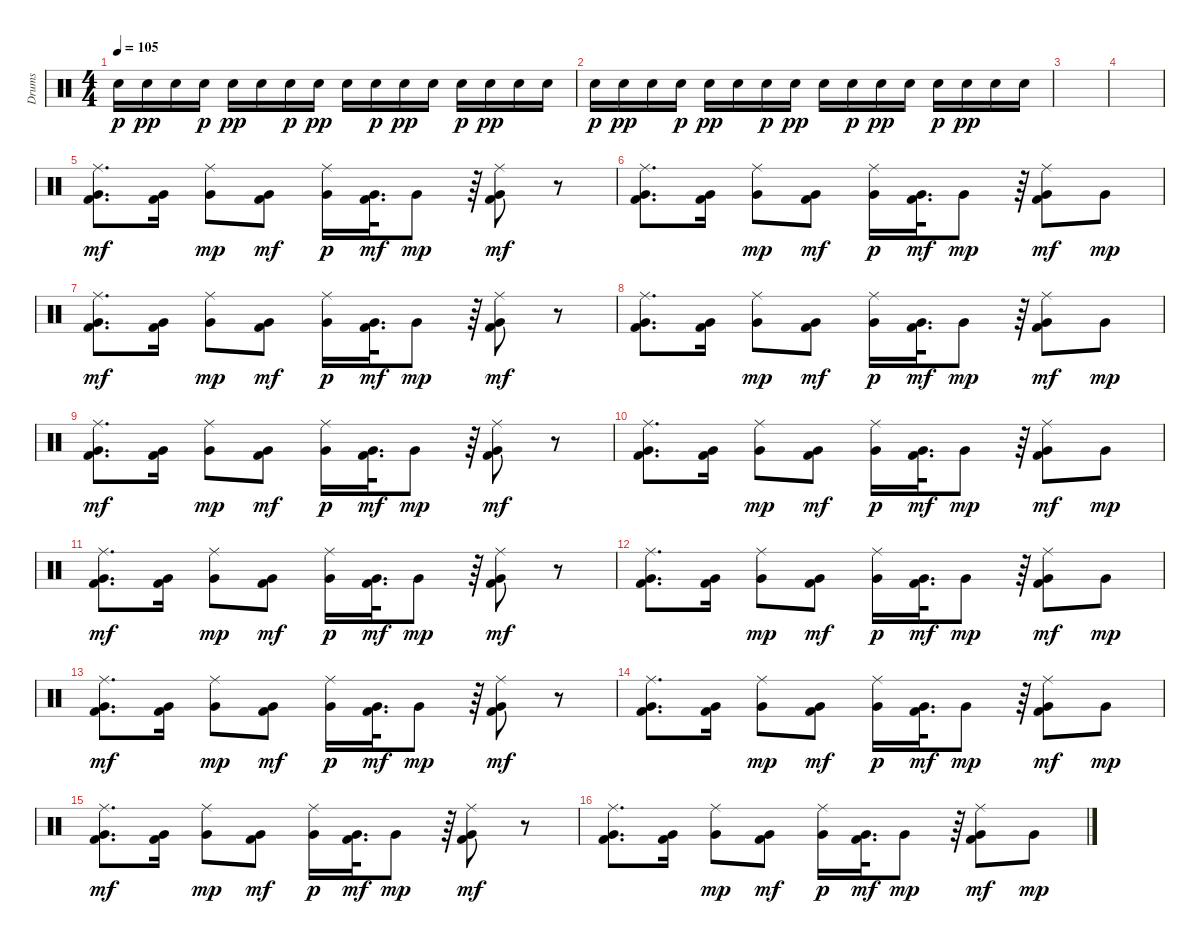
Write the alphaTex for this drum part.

\track ("Drums" "Drums") {instrument percussion}
\staff {score}
\articulation defaults
\ts (4 4)
\tempo 105
\clef neutral
\ks c "Electric Snare (hit)".16{dy p} "Electric Snare (hit)".16{dy pp} "Electric Snare (hit)".16 "Electric Snare (hit)".16{dy p} "Electric Snare (hit)".16{dy pp} "Electric Snare (hit)".16 "Electric Snare (hit)".16{dy p} "Electric Snare (hit)".16{dy pp} "Electric Snare (hit)".16 "Electric Snare (hit)".16{dy p} "Electric Snare (hit)".16{dy pp} "Electric Snare (hit)".16 "Electric Snare (hit)".16{dy p} "Electric Snare (hit)".16{dy pp} "Electric Snare (hit)".16 "Electric Snare (hit)".16
|
"Electric Snare (hit)".16{dy p} "Electric Snare (hit)".16{dy pp} "Electric Snare (hit)".16 "Electric Snare (hit)".16{dy p} "Electric Snare (hit)".16{dy pp} "Electric Snare (hit)".16 "Electric Snare (hit)".16{dy p} "Electric Snare (hit)".16{dy pp} "Electric Snare (hit)".16 "Electric Snare (hit)".16{dy p} "Electric Snare (hit)".16{dy pp} "Electric Snare (hit)".16 "Electric Snare (hit)".16{dy p} "Electric Snare (hit)".16{dy pp} "Electric Snare (hit)".16 "Electric Snare (hit)".16 |
|
|
("Ride (middle)" "Very Low Tom (hit)" "Kick (hit) 2").8{d dy mf} ("Very Low Tom (hit)" "Kick (hit) 2").16 ("Ride (middle)" "Very Low Tom (hit)").8{dy mp} ("Very Low Tom (hit)" "Kick (hit) 2").8{dy mf} ("Ride (middle)" "Very Low Tom (hit)").16{dy p} ("Very Low Tom (hit)" "Kick (hit) 2").32{d dy mf} "Very Low Tom (hit)".8{dy mp} r.64 ("Ride (middle)" "Very Low Tom (hit)" "Kick (hit) 2").8{dy mf} r.8 |
("Ride (middle)" "Very Low Tom (hit)" "Kick (hit) 2").8{d} ("Very Low Tom (hit)" "Kick (hit) 2").16 ("Ride (middle)" "Very Low Tom (hit)").8{dy mp} ("Very Low Tom (hit)" "Kick (hit) 2").8{dy mf} ("Ride (middle)" "Very Low Tom (hit)").16{dy p} ("Very Low Tom (hit)" "Kick (hit) 2").32{d dy mf} "Very Low Tom (hit)".8{dy mp} r.64 ("Ride (middle)" "Very Low Tom (hit)" "Kick (hit) 2").8{dy mf} "Very Low Tom (hit)".8{dy mp} |
("Ride (middle)" "Very Low Tom (hit)" "Kick (hit) 2").8{d dy mf} ("Very Low Tom (hit)" "Kick (hit) 2").16 ("Ride (middle)" "Very Low Tom (hit)").8{dy mp} ("Very Low Tom (hit)" "Kick (hit) 2").8{dy mf} ("Ride (middle)" "Very Low Tom (hit)").16{dy p} ("Very Low Tom (hit)" "Kick (hit) 2").32{d dy mf} "Very Low Tom (hit)".8{dy mp} r.64 ("Ride (middle)" "Very Low Tom (hit)" "Kick (hit) 2").8{dy mf} r.8 |
("Ride (middle)" "Very Low Tom (hit)" "Kick (hit) 2").8{d} ("Very Low Tom (hit)" "Kick (hit) 2").16 ("Ride (middle)" "Very Low Tom (hit)").8{dy mp} ("Very Low Tom (hit)" "Kick (hit) 2").8{dy mf} ("Ride (middle)" "Very Low Tom (hit)").16{dy p} ("Very Low Tom (hit)" "Kick (hit) 2").32{d dy mf} "Very Low Tom (hit)".8{dy mp} r.64 ("Ride (middle)" "Very Low Tom (hit)" "Kick (hit) 2").8{dy mf} "Very Low Tom (hit)".8{dy mp} |
("Ride (middle)" "Very Low Tom (hit)" "Kick (hit) 2").8{d dy mf} ("Very Low Tom (hit)" "Kick (hit) 2").16 ("Ride (middle)" "Very Low Tom (hit)").8{dy mp} ("Very Low Tom (hit)" "Kick (hit) 2").8{dy mf} ("Ride (middle)" "Very Low Tom (hit)").16{dy p} ("Very Low Tom (hit)" "Kick (hit) 2").32{d dy mf} "Very Low Tom (hit)".8{dy mp} r.64 ("Ride (middle)" "Very Low Tom (hit)" "Kick (hit) 2").8{dy mf} r.8 |
("Ride (middle)" "Very Low Tom (hit)" "Kick (hit) 2").8{d} ("Very Low Tom (hit)" "Kick (hit) 2").16 ("Ride (middle)" "Very Low Tom (hit)").8{dy mp} ("Very Low Tom (hit)" "Kick (hit) 2").8{dy mf} ("Ride (middle)" "Very Low Tom (hit)").16{dy p} ("Very Low Tom (hit)" "Kick (hit) 2").32{d dy mf} "Very Low Tom (hit)".8{dy mp} r.64 ("Ride (middle)" "Very Low Tom (hit)" "Kick (hit) 2").8{dy mf} "Very Low Tom (hit)".8{dy mp} |
("Ride (middle)" "Very Low Tom (hit)" "Kick (hit) 2").8{d dy mf} ("Very Low Tom (hit)" "Kick (hit) 2").16 ("Ride (middle)" "Very Low Tom (hit)").8{dy mp} ("Very Low Tom (hit)" "Kick (hit) 2").8{dy mf} ("Ride (middle)" "Very Low Tom (hit)").16{dy p} ("Very Low Tom (hit)" "Kick (hit) 2").32{d dy mf} "Very Low Tom (hit)".8{dy mp} r.64 ("Ride (middle)" "Very Low Tom (hit)" "Kick (hit) 2").8{dy mf} r.8 |
("Ride (middle)" "Very Low Tom (hit)" "Kick (hit) 2").8{d} ("Very Low Tom (hit)" "Kick (hit) 2").16 ("Ride (middle)" "Very Low Tom (hit)").8{dy mp} ("Very Low Tom (hit)" "Kick (hit) 2").8{dy mf} ("Ride (middle)" "Very Low Tom (hit)").16{dy p} ("Very Low Tom (hit)" "Kick (hit) 2").32{d dy mf} "Very Low Tom (hit)".8{dy mp} r.64 ("Ride (middle)" "Very Low Tom (hit)" "Kick (hit) 2").8{dy mf} "Very Low Tom (hit)".8{dy mp} |
("Ride (middle)" "Very Low Tom (hit)" "Kick (hit) 2").8{d dy mf} ("Very Low Tom (hit)" "Kick (hit) 2").16 ("Ride (middle)" "Very Low Tom (hit)").8{dy mp} ("Very Low Tom (hit)" "Kick (hit) 2").8{dy mf} ("Ride (middle)" "Very Low Tom (hit)").16{dy p} ("Very Low Tom (hit)" "Kick (hit) 2").32{d dy mf} "Very Low Tom (hit)".8{dy mp} r.64 ("Ride (middle)" "Very Low Tom (hit)" "Kick (hit) 2").8{dy mf} r.8 |
("Ride (middle)" "Very Low Tom (hit)" "Kick (hit) 2").8{d} ("Very Low Tom (hit)" "Kick (hit) 2").16 ("Ride (middle)" "Very Low Tom (hit)").8{dy mp} ("Very Low Tom (hit)" "Kick (hit) 2").8{dy mf} ("Ride (middle)" "Very Low Tom (hit)").16{dy p} ("Very Low Tom (hit)" "Kick (hit) 2").32{d dy mf} "Very Low Tom (hit)".8{dy mp} r.64 ("Ride (middle)" "Very Low Tom (hit)" "Kick (hit) 2").8{dy mf} "Very Low Tom (hit)".8{dy mp} |
("Ride (middle)" "Very Low Tom (hit)" "Kick (hit) 2").8{d dy mf} ("Very Low Tom (hit)" "Kick (hit) 2").16 ("Ride (middle)" "Very Low Tom (hit)").8{dy mp} ("Very Low Tom (hit)" "Kick (hit) 2").8{dy mf} ("Ride (middle)" "Very Low Tom (hit)").16{dy p} ("Very Low Tom (hit)" "Kick (hit) 2").32{d dy mf} "Very Low Tom (hit)".8{dy mp} r.64 ("Ride (middle)" "Very Low Tom (hit)" "Kick (hit) 2").8{dy mf} r.8 |
("Ride (middle)" "Very Low Tom (hit)" "Kick (hit) 2").8{d} ("Very Low Tom (hit)" "Kick (hit) 2").16 ("Ride (middle)" "Very Low Tom (hit)").8{dy mp} ("Very Low Tom (hit)" "Kick (hit) 2").8{dy mf} ("Ride (middle)" "Very Low Tom (hit)").16{dy p} ("Very Low Tom (hit)" "Kick (hit) 2").32{d dy mf} "Very Low Tom (hit)".8{dy mp} r.64 ("Ride (middle)" "Very Low Tom (hit)" "Kick (hit) 2").8{dy mf} "Very Low Tom (hit)".8{dy mp}
